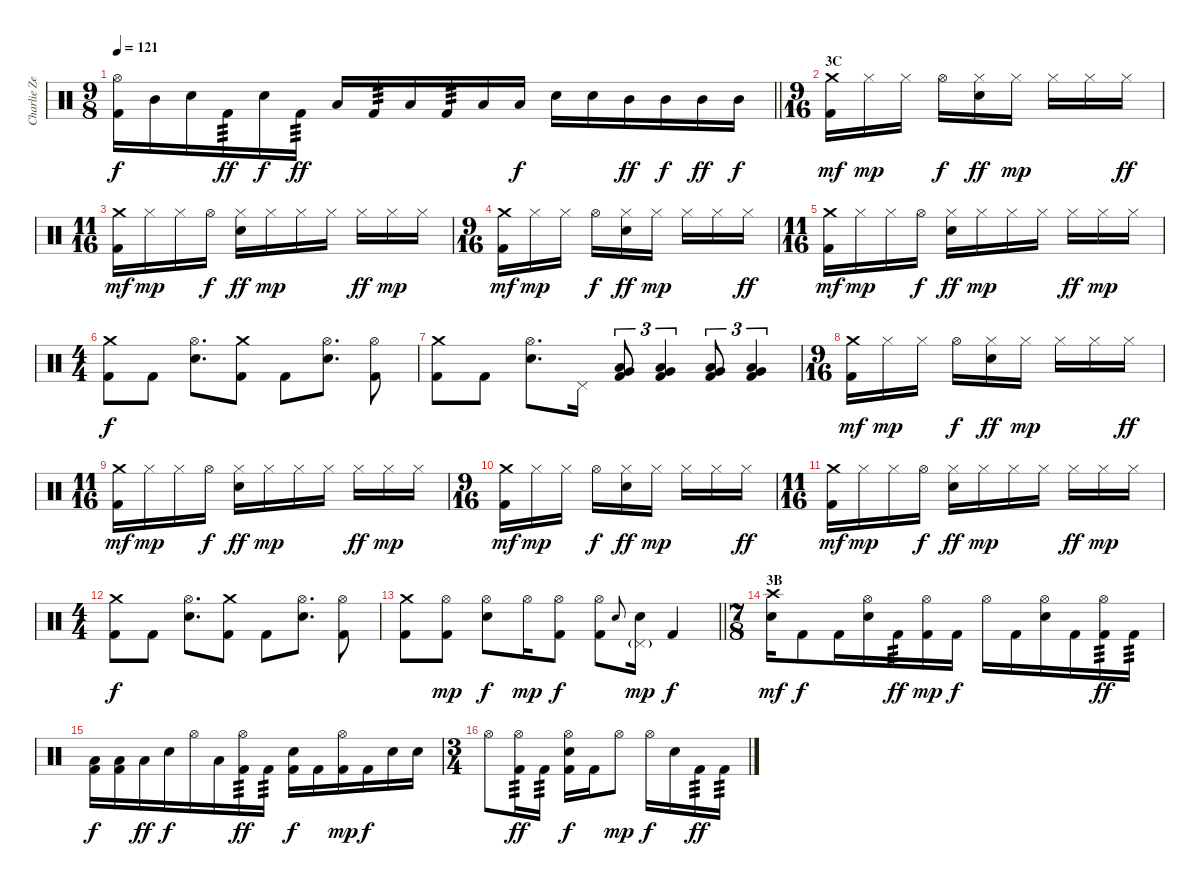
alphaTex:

\track ("Charlie Zeleny - Drums" "Charlie Ze") {instrument percussion}
\staff {score}
\articulation defaults
\ts (9 8)
\tempo 121
\clef neutral
\barLineRight lightlight
\ks c
("Hi-Hat (open)" "Kick (hit) 2").16{dy f} "Mid Tom (hit)".16 "Electric Snare (hit)".16 "Kick (hit) 2".16{tp 3 dy ff} "Electric Snare (hit)".16{dy f} "Kick (hit) 2".16{tp 3 dy ff} "Low Tom (hit)".16 "Kick (hit) 2".16{tp 3} "Low Tom (hit)".16 "Kick (hit) 2".16{tp 3} "Low Tom (hit)".16 "Low Tom (hit)".16{dy f} "Electric Snare (hit)".16 "Electric Snare (hit)".16 "Mid Tom (hit)".16{dy ff} "Mid Tom (hit)".16{dy f} "Mid Tom (hit)".16{dy ff} "Mid Tom (hit)".16{dy f} |
\ts (9 16)
\section ("" "3C")
("Crash medium (hit)" "Kick (hit) 2").16{dy mf} "Hi-Hat (closed)".16{dy mp} "Hi-Hat (closed)".16 "Hi-Hat (open)".16{dy f} ("Hi-Hat (closed)" "Electric Snare (hit)").16{dy ff} "Hi-Hat (closed)".16{dy mp} "Hi-Hat (closed)".16 "Hi-Hat (closed)".16 "Hi-Hat (closed)".16{dy ff} |
\ts (11 16)
("Crash medium (hit)" "Kick (hit) 2").16{dy mf} "Hi-Hat (closed)".16{dy mp} "Hi-Hat (closed)".16 "Hi-Hat (open)".16{dy f} ("Hi-Hat (closed)" "Electric Snare (hit)").16{dy ff} "Hi-Hat (closed)".16{dy mp} "Hi-Hat (closed)".16 "Hi-Hat (closed)".16 "Hi-Hat (closed)".16{dy ff} "Hi-Hat (closed)".16{dy mp} "Hi-Hat (closed)".16 |
\ts (9 16)
("Crash medium (hit)" "Kick (hit) 2").16{dy mf} "Hi-Hat (closed)".16{dy mp} "Hi-Hat (closed)".16 "Hi-Hat (open)".16{dy f} ("Hi-Hat (closed)" "Electric Snare (hit)").16{dy ff} "Hi-Hat (closed)".16{dy mp} "Hi-Hat (closed)".16 "Hi-Hat (closed)".16 "Hi-Hat (closed)".16{dy ff} |
\ts (11 16)
("Crash medium (hit)" "Kick (hit) 2").16{dy mf} "Hi-Hat (closed)".16{dy mp} "Hi-Hat (closed)".16 "Hi-Hat (open)".16{dy f} ("Hi-Hat (closed)" "Electric Snare (hit)").16{dy ff} "Hi-Hat (closed)".16{dy mp} "Hi-Hat (closed)".16 "Hi-Hat (closed)".16 "Hi-Hat (closed)".16{dy ff} "Hi-Hat (closed)".16{dy mp} "Hi-Hat (closed)".16 |
\ts (4 4)
("Crash medium (hit)" "Kick (hit) 2").8{dy f} "Kick (hit) 2".8 ("Hi-Hat (open)" "Electric Snare (hit)").8{d} ("Crash medium (hit)" "Kick (hit) 2").8 "Kick (hit) 2".8 ("Hi-Hat (open)" "Electric Snare (hit)").8{d} ("Hi-Hat (open)" "Kick (hit) 2").8 |
("Crash medium (hit)" "Kick (hit) 2").8 "Kick (hit) 2".8 ("Hi-Hat (open)" "Electric Snare (hit)").8{d} "Pedal Hi-Hat (hit)".16 ("Low Tom (hit)" "Very Low Tom (hit)" "Kick (hit) 2").8{tu (3 2)} ("Low Tom (hit)" "Very Low Tom (hit)" "Kick (hit) 2").4{tu (3 2)} ("Low Tom (hit)" "Very Low Tom (hit)" "Kick (hit) 2").8{tu (3 2)} ("Low Tom (hit)" "Very Low Tom (hit)" "Kick (hit) 2").4{tu (3 2)} |
\ts (9 16)
("Crash medium (hit)" "Kick (hit) 2").16{dy mf} "Hi-Hat (closed)".16{dy mp} "Hi-Hat (closed)".16 "Hi-Hat (open)".16{dy f} ("Hi-Hat (closed)" "Electric Snare (hit)").16{dy ff} "Hi-Hat (closed)".16{dy mp} "Hi-Hat (closed)".16 "Hi-Hat (closed)".16 "Hi-Hat (closed)".16{dy ff} |
\ts (11 16)
("Crash medium (hit)" "Kick (hit) 2").16{dy mf} "Hi-Hat (closed)".16{dy mp} "Hi-Hat (closed)".16 "Hi-Hat (open)".16{dy f} ("Hi-Hat (closed)" "Electric Snare (hit)").16{dy ff} "Hi-Hat (closed)".16{dy mp} "Hi-Hat (closed)".16 "Hi-Hat (closed)".16 "Hi-Hat (closed)".16{dy ff} "Hi-Hat (closed)".16{dy mp} "Hi-Hat (closed)".16 |
\ts (9 16)
("Crash medium (hit)" "Kick (hit) 2").16{dy mf} "Hi-Hat (closed)".16{dy mp} "Hi-Hat (closed)".16 "Hi-Hat (open)".16{dy f} ("Hi-Hat (closed)" "Electric Snare (hit)").16{dy ff} "Hi-Hat (closed)".16{dy mp} "Hi-Hat (closed)".16 "Hi-Hat (closed)".16 "Hi-Hat (closed)".16{dy ff} |
\ts (11 16)
("Crash medium (hit)" "Kick (hit) 2").16{dy mf} "Hi-Hat (closed)".16{dy mp} "Hi-Hat (closed)".16 "Hi-Hat (open)".16{dy f} ("Hi-Hat (closed)" "Electric Snare (hit)").16{dy ff} "Hi-Hat (closed)".16{dy mp} "Hi-Hat (closed)".16 "Hi-Hat (closed)".16 "Hi-Hat (closed)".16{dy ff} "Hi-Hat (closed)".16{dy mp} "Hi-Hat (closed)".16 |
\ts (4 4)
("Crash medium (hit)" "Kick (hit) 2").8{dy f} "Kick (hit) 2".8 ("Hi-Hat (open)" "Electric Snare (hit)").8{d} ("Crash medium (hit)" "Kick (hit) 2").8 "Kick (hit) 2".8 ("Hi-Hat (open)" "Electric Snare (hit)").8{d} ("Hi-Hat (open)" "Kick (hit) 2").8 |
\barLineRight lightlight
("Crash medium (hit)" "Kick (hit) 2").8 ("Hi-Hat (open)" "Kick (hit) 2").8{dy mp} ("Hi-Hat (open)" "Electric Snare (hit)").8{dy f} "Hi-Hat (open)".16{dy mp} ("Hi-Hat (open)" "Kick (hit) 2").8{dy f} ("Hi-Hat (open)" "Kick (hit) 2").8 "Electric Snare (hit)".8{gr onbeat} ("Electric Snare (hit)" "Pedal Hi-Hat (hit)"{g}).16{dy mp} "Kick (hit) 2".4{dy f} |
\ts (7 8)
\section ("" "3B")
("Crash high (hit)" "Electric Snare (hit)").16{dy mf} "Kick (hit) 2".8{dy f} "Kick (hit) 2".16 ("Hi-Hat (open)" "Electric Snare (hit)").16 "Kick (hit) 2".16{tp 3 dy ff} ("Hi-Hat (open)" "Kick (hit) 2").16{dy mp} "Kick (hit) 2".16{dy f} "Hi-Hat (open)".16 "Kick (hit) 2".16 ("Hi-Hat (open)" "Electric Snare (hit)").16 "Kick (hit) 2".16 ("Hi-Hat (open)" "Kick (hit) 2").16{tp 3 dy ff} "Kick (hit) 2".16{tp 3} |
("Low Floor Tom (hit)" "Kick (hit) 2").16{dy f} ("Low Floor Tom (hit)" "Kick (hit) 2").16 "Low Tom (hit)".16{dy ff} "Electric Snare (hit)".16{dy f} "Hi-Hat (open)".16 "Low Tom (hit)".16 ("Hi-Hat (open)" "Kick (hit) 2").16{tp 3 dy ff} "Kick (hit) 2".16{tp 3} ("Electric Snare (hit)" "Kick (hit) 2").16{dy f} "Kick (hit) 2".16 ("Hi-Hat (open)" "Kick (hit) 2").16{dy mp} "Kick (hit) 2".16{dy f} "Electric Snare (hit)".16 "Electric Snare (hit)".16 |
\ts (3 4)
"Hi-Hat (open)".8 ("Hi-Hat (open)" "Kick (hit) 2").16{tp 3 dy ff} "Kick (hit) 2".16{tp 3} ("Hi-Hat (open)" "Electric Snare (hit)" "Kick (hit) 2").16{dy f} "Kick (hit) 2".16 "Hi-Hat (open)".8{dy mp} "Hi-Hat (open)".16{dy f} "Electric Snare (hit)".16 "Kick (hit) 2".16{tp 3 dy ff} "Kick (hit) 2".16{tp 3}
